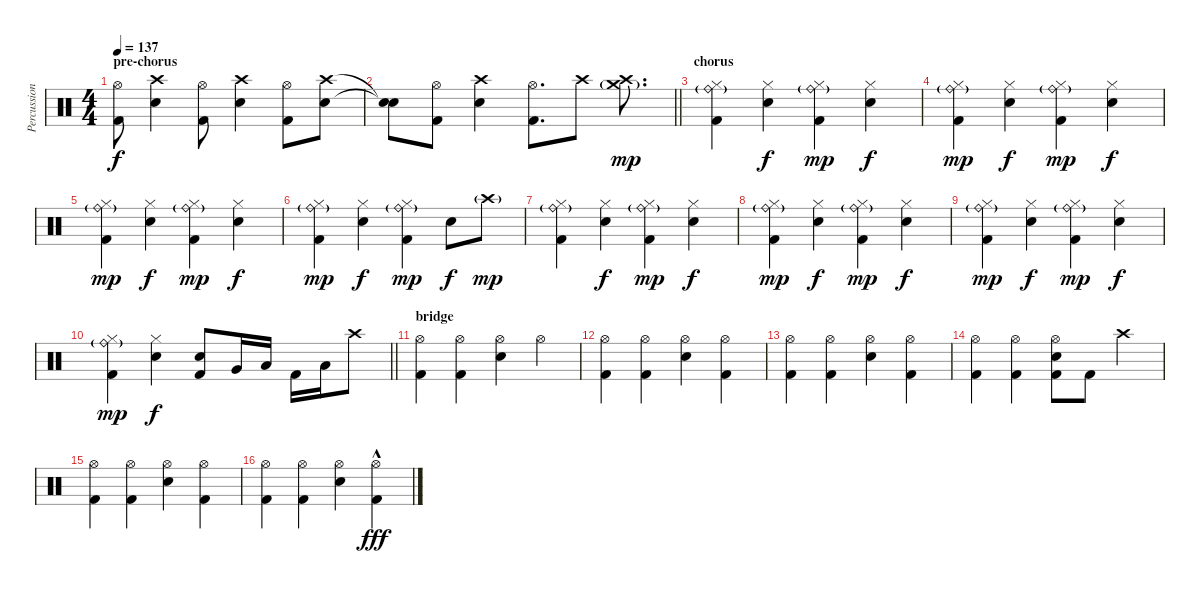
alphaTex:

\track ("Percussion" "Percussion") {instrument percussion}
\staff {score}
\articulation defaults
\ts (4 4)
\section ("" "pre-chorus")
\tempo 137
\clef neutral
\ks c
("Hi-Hat (open)" "Kick (hit) 2").8{dy f} ("Crash high (hit)" "Snare (hit) 2").4 ("Hi-Hat (open)" "Kick (hit) 2").8 ("Crash high (hit)" "Snare (hit) 2").4 ("Hi-Hat (open)" "Kick (hit) 2").8 ("Crash high (hit)" "Snare (hit) 2").8 |
\barLineRight lightlight
("Snare (hit)"{t} "Snare (hit)"{t}).8 ("Hi-Hat (open)" "Kick (hit) 2").8 ("Crash high (hit)" "Snare (hit) 2").4 ("Hi-Hat (open)" "Kick (hit) 2").8{d} "Crash high (hit)".8 ("Crash medium (hit)"{g} "Crash high (hit)").8{d dy mp} |
\section ("" "chorus")
("Hi-Hat (closed)" "Ride (bell)"{g} "Kick (hit) 2").4 ("Hi-Hat (closed)" "Snare (hit) 2").4{dy f} ("Hi-Hat (closed)" "Ride (bell)"{g} "Kick (hit) 2").4{dy mp} ("Hi-Hat (closed)" "Snare (hit) 2").4{dy f} |
("Hi-Hat (closed)" "Ride (bell)"{g} "Kick (hit) 2").4{dy mp} ("Hi-Hat (closed)" "Snare (hit) 2").4{dy f} ("Hi-Hat (closed)" "Ride (bell)"{g} "Kick (hit) 2").4{dy mp} ("Hi-Hat (closed)" "Snare (hit) 2").4{dy f} |
("Hi-Hat (closed)" "Ride (bell)"{g} "Kick (hit) 2").4{dy mp} ("Hi-Hat (closed)" "Snare (hit) 2").4{dy f} ("Hi-Hat (closed)" "Ride (bell)"{g} "Kick (hit) 2").4{dy mp} ("Hi-Hat (closed)" "Snare (hit) 2").4{dy f} |
("Hi-Hat (closed)" "Ride (bell)"{g} "Kick (hit) 2").4{dy mp} ("Hi-Hat (closed)" "Snare (hit) 2").4{dy f} ("Hi-Hat (closed)" "Ride (bell)"{g} "Kick (hit) 2").4{dy mp} "Snare (hit) 2".8{dy f} "Crash high (hit)"{g}.8{dy mp} |
("Hi-Hat (closed)" "Ride (bell)"{g} "Kick (hit) 2").4 ("Hi-Hat (closed)" "Snare (hit) 2").4{dy f} ("Hi-Hat (closed)" "Ride (bell)"{g} "Kick (hit) 2").4{dy mp} ("Hi-Hat (closed)" "Snare (hit) 2").4{dy f} |
("Hi-Hat (closed)" "Ride (bell)"{g} "Kick (hit) 2").4{dy mp} ("Hi-Hat (closed)" "Snare (hit) 2").4{dy f} ("Hi-Hat (closed)" "Ride (bell)"{g} "Kick (hit) 2").4{dy mp} ("Hi-Hat (closed)" "Snare (hit) 2").4{dy f} |
("Hi-Hat (closed)" "Ride (bell)"{g} "Kick (hit) 2").4{dy mp} ("Hi-Hat (closed)" "Snare (hit) 2").4{dy f} ("Hi-Hat (closed)" "Ride (bell)"{g} "Kick (hit) 2").4{dy mp} ("Hi-Hat (closed)" "Snare (hit) 2").4{dy f} |
\barLineRight lightlight
("Hi-Hat (closed)" "Ride (bell)"{g} "Kick (hit) 2").4{dy mp} ("Hi-Hat (closed)" "Snare (hit) 2").4{dy f} ("Snare (hit) 2" "Kick (hit) 2").8 "Very Low Tom (hit)".16 "Low Floor Tom (hit)".16 "Kick (hit) 2".16 "Low Floor Tom (hit)".16 "Crash high (hit)".8 |
\section ("" "bridge")
("Hi-Hat (open)" "Kick (hit) 2").4 ("Hi-Hat (open)" "Kick (hit) 2").4 ("Hi-Hat (open)" "Snare (hit) 2").4 "Hi-Hat (open)".4 |
("Hi-Hat (open)" "Kick (hit) 2").4 ("Hi-Hat (open)" "Kick (hit) 2").4 ("Hi-Hat (open)" "Snare (hit) 2").4 ("Hi-Hat (open)" "Kick (hit) 2").4 |
("Hi-Hat (open)" "Kick (hit) 2").4 ("Hi-Hat (open)" "Kick (hit) 2").4 ("Hi-Hat (open)" "Snare (hit) 2").4 ("Hi-Hat (open)" "Kick (hit) 2").4 |
("Hi-Hat (open)" "Kick (hit) 2").4 ("Hi-Hat (open)" "Kick (hit) 2").4 ("Hi-Hat (open)" "Snare (hit) 2" "Kick (hit) 2").8 "Kick (hit) 2".8 "Crash high (hit)".4 |
("Hi-Hat (open)" "Kick (hit) 2").4 ("Hi-Hat (open)" "Kick (hit) 2").4 ("Hi-Hat (open)" "Snare (hit) 2").4 ("Hi-Hat (open)" "Kick (hit) 2").4 |
("Hi-Hat (open)" "Kick (hit) 2").4 ("Hi-Hat (open)" "Kick (hit) 2").4 ("Hi-Hat (open)" "Snare (hit) 2").4 ("Hi-Hat (open)"{hac} "Kick (hit) 2").4{dy fff}
